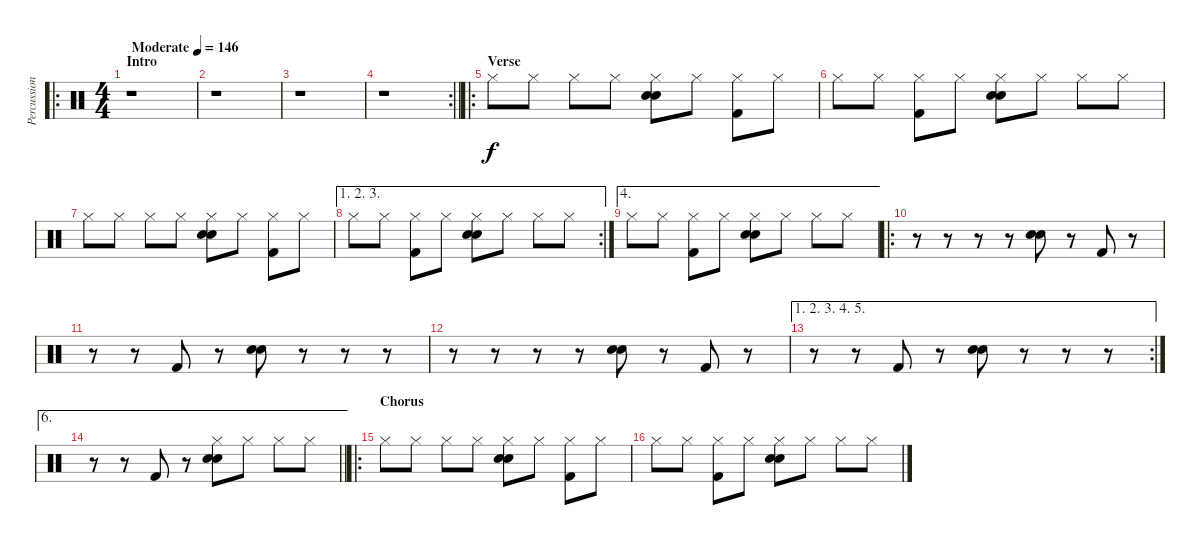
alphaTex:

\track ("Percussion" "Percussion") {instrument percussion}
\staff {score}
\articulation defaults
\ro
\ts (4 4)
\section ("" "Intro")
\tempo (146 "Moderate")
\clef neutral
\ks c
r.1{dy f} |
r.1 |
r.1 |
\rc 2
\barLineRight lightlight
r.1 |
\ro
\section ("" "Verse")
"Hi-Hat (closed)".8 "Hi-Hat (closed)".8 "Hi-Hat (closed)".8 "Hi-Hat (closed)".8 ("Hi-Hat (closed)" "Electric Snare (hit)" "Hand Clap (hit)").8 "Hi-Hat (closed)".8 ("Hi-Hat (closed)" "Kick (hit) 2").8 "Hi-Hat (closed)".8 |
"Hi-Hat (closed)".8 "Hi-Hat (closed)".8 ("Hi-Hat (closed)" "Kick (hit) 2").8 "Hi-Hat (closed)".8 ("Hi-Hat (closed)" "Electric Snare (hit)" "Hand Clap (hit)").8 "Hi-Hat (closed)".8 "Hi-Hat (closed)".8 "Hi-Hat (closed)".8 |
"Hi-Hat (closed)".8 "Hi-Hat (closed)".8 "Hi-Hat (closed)".8 "Hi-Hat (closed)".8 ("Hi-Hat (closed)" "Electric Snare (hit)" "Hand Clap (hit)").8 "Hi-Hat (closed)".8 ("Hi-Hat (closed)" "Kick (hit) 2").8 "Hi-Hat (closed)".8 |
\ae (1 2 3)
\rc 2 "Hi-Hat (closed)".8 "Hi-Hat (closed)".8
("Hi-Hat (closed)" "Kick (hit) 2").8 "Hi-Hat (closed)".8 ("Hi-Hat (closed)" "Electric Snare (hit)" "Hand Clap (hit)").8 "Hi-Hat (closed)".8 "Hi-Hat (closed)".8 "Hi-Hat (closed)".8 |
\ae 4 "Hi-Hat (closed)".8 "Hi-Hat (closed)".8
("Hi-Hat (closed)" "Kick (hit) 2").8 "Hi-Hat (closed)".8 ("Hi-Hat (closed)" "Electric Snare (hit)" "Hand Clap (hit)").8 "Hi-Hat (closed)".8 "Hi-Hat (closed)".8 "Hi-Hat (closed)".8 |
\ro
r.8 r.8 r.8 r.8 ("Electric Snare (hit)" "Hand Clap (hit)").8 r.8 "Kick (hit) 2".8 r.8 |
r.8 r.8 "Kick (hit) 2".8 r.8 ("Electric Snare (hit)" "Hand Clap (hit)").8 r.8 r.8 r.8 |
r.8 r.8 r.8 r.8 ("Electric Snare (hit)" "Hand Clap (hit)").8 r.8 "Kick (hit) 2".8 r.8 |
\ae (1 2 3 4 5)
\rc 2
r.8 r.8 "Kick (hit) 2".8 r.8 ("Electric Snare (hit)" "Hand Clap (hit)").8 r.8 r.8 r.8 |
\ae 6
\barLineRight lightlight
r.8 r.8 "Kick (hit) 2".8 r.8 ("Hi-Hat (closed)" "Electric Snare (hit)" "Hand Clap (hit)").8 "Hi-Hat (closed)".8 "Hi-Hat (closed)".8 "Hi-Hat (closed)".8 |
\ro
\section ("" "Chorus")
"Hi-Hat (closed)".8 "Hi-Hat (closed)".8 "Hi-Hat (closed)".8 "Hi-Hat (closed)".8 ("Hi-Hat (closed)" "Electric Snare (hit)" "Hand Clap (hit)").8 "Hi-Hat (closed)".8 ("Hi-Hat (closed)" "Kick (hit) 2").8 "Hi-Hat (closed)".8 |
"Hi-Hat (closed)".8 "Hi-Hat (closed)".8 ("Hi-Hat (closed)" "Kick (hit) 2").8 "Hi-Hat (closed)".8 ("Hi-Hat (closed)" "Electric Snare (hit)" "Hand Clap (hit)").8 "Hi-Hat (closed)".8 "Hi-Hat (closed)".8 "Hi-Hat (closed)".8
